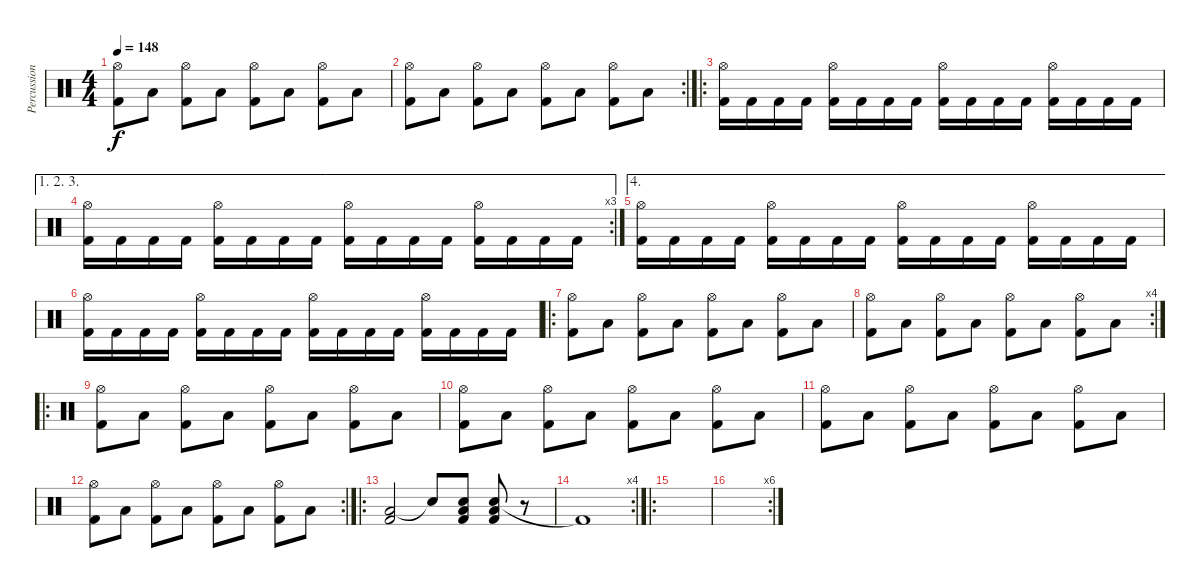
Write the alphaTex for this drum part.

\track ("Percussion" "Percussion") {instrument percussion}
\staff {score}
\articulation defaults
\ts (4 4)
\tempo 148
\clef neutral
\ks c
("Hi-Hat (open)" "Kick (hit) 2").8{dy f} "Low Tom (hit)".8 ("Hi-Hat (open)" "Kick (hit) 2").8 "Low Tom (hit)".8 ("Hi-Hat (open)" "Kick (hit) 2").8 "Low Tom (hit)".8 ("Hi-Hat (open)" "Kick (hit) 2").8 "Low Tom (hit)".8 |
\rc 2
("Hi-Hat (open)" "Kick (hit) 2").8 "Low Tom (hit)".8 ("Hi-Hat (open)" "Kick (hit) 2").8 "Low Tom (hit)".8 ("Hi-Hat (open)" "Kick (hit) 2").8 "Low Tom (hit)".8 ("Hi-Hat (open)" "Kick (hit) 2").8 "Low Tom (hit)".8 |
\ro
("Hi-Hat (open)" "Kick (hit) 2").16 "Kick (hit) 2".16 "Kick (hit) 2".16 "Kick (hit) 2".16 ("Hi-Hat (open)" "Kick (hit) 2").16 "Kick (hit) 2".16 "Kick (hit) 2".16 "Kick (hit) 2".16 ("Hi-Hat (open)" "Kick (hit) 2").16 "Kick (hit) 2".16 "Kick (hit) 2".16 "Kick (hit) 2".16 ("Hi-Hat (open)" "Kick (hit) 2").16 "Kick (hit) 2".16 "Kick (hit) 2".16 "Kick (hit) 2".16 |
\ae (1 2 3)
\rc 3
("Hi-Hat (open)" "Kick (hit) 2").16 "Kick (hit) 2".16 "Kick (hit) 2".16 "Kick (hit) 2".16 ("Hi-Hat (open)" "Kick (hit) 2").16 "Kick (hit) 2".16 "Kick (hit) 2".16 "Kick (hit) 2".16 ("Hi-Hat (open)" "Kick (hit) 2").16 "Kick (hit) 2".16 "Kick (hit) 2".16 "Kick (hit) 2".16 ("Hi-Hat (open)" "Kick (hit) 2").16 "Kick (hit) 2".16 "Kick (hit) 2".16 "Kick (hit) 2".16 |
\ae 4
("Hi-Hat (open)" "Kick (hit) 2").16 "Kick (hit) 2".16 "Kick (hit) 2".16 "Kick (hit) 2".16 ("Hi-Hat (open)" "Kick (hit) 2").16 "Kick (hit) 2".16 "Kick (hit) 2".16 "Kick (hit) 2".16 ("Hi-Hat (open)" "Kick (hit) 2").16 "Kick (hit) 2".16 "Kick (hit) 2".16 "Kick (hit) 2".16 ("Hi-Hat (open)" "Kick (hit) 2").16 "Kick (hit) 2".16 "Kick (hit) 2".16 "Kick (hit) 2".16 |
("Hi-Hat (open)" "Kick (hit) 2").16 "Kick (hit) 2".16 "Kick (hit) 2".16 "Kick (hit) 2".16 ("Hi-Hat (open)" "Kick (hit) 2").16 "Kick (hit) 2".16 "Kick (hit) 2".16 "Kick (hit) 2".16 ("Hi-Hat (open)" "Kick (hit) 2").16 "Kick (hit) 2".16 "Kick (hit) 2".16 "Kick (hit) 2".16 ("Hi-Hat (open)" "Kick (hit) 2").16 "Kick (hit) 2".16 "Kick (hit) 2".16 "Kick (hit) 2".16 |
\ro
("Hi-Hat (open)" "Kick (hit) 2").8 "Low Tom (hit)".8 ("Hi-Hat (open)" "Kick (hit) 2").8 "Low Tom (hit)".8 ("Hi-Hat (open)" "Kick (hit) 2").8 "Low Tom (hit)".8 ("Hi-Hat (open)" "Kick (hit) 2").8 "Low Tom (hit)".8 |
\rc 4
("Hi-Hat (open)" "Kick (hit) 2").8 "Low Tom (hit)".8 ("Hi-Hat (open)" "Kick (hit) 2").8 "Low Tom (hit)".8 ("Hi-Hat (open)" "Kick (hit) 2").8 "Low Tom (hit)".8 ("Hi-Hat (open)" "Kick (hit) 2").8 "Low Tom (hit)".8 |
\ro
("Hi-Hat (open)" "Kick (hit) 2").8 "Low Tom (hit)".8 ("Hi-Hat (open)" "Kick (hit) 2").8 "Low Tom (hit)".8 ("Hi-Hat (open)" "Kick (hit) 2").8 "Low Tom (hit)".8 ("Hi-Hat (open)" "Kick (hit) 2").8 "Low Tom (hit)".8 |
("Hi-Hat (open)" "Kick (hit) 2").8 "Low Tom (hit)".8 ("Hi-Hat (open)" "Kick (hit) 2").8 "Low Tom (hit)".8 ("Hi-Hat (open)" "Kick (hit) 2").8 "Low Tom (hit)".8 ("Hi-Hat (open)" "Kick (hit) 2").8 "Low Tom (hit)".8 |
("Hi-Hat (open)" "Kick (hit) 2").8 "Low Tom (hit)".8 ("Hi-Hat (open)" "Kick (hit) 2").8 "Low Tom (hit)".8 ("Hi-Hat (open)" "Kick (hit) 2").8 "Low Tom (hit)".8 ("Hi-Hat (open)" "Kick (hit) 2").8 "Low Tom (hit)".8 |
\rc 2
("Hi-Hat (open)" "Kick (hit) 2").8 "Low Tom (hit)".8 ("Hi-Hat (open)" "Kick (hit) 2").8 "Low Tom (hit)".8 ("Hi-Hat (open)" "Kick (hit) 2").8 "Low Tom (hit)".8 ("Hi-Hat (open)" "Kick (hit) 2").8 "Low Tom (hit)".8 |
\ro
("Low Tom (hit)" "Kick (hit) 2").2 "Snare (hit)"{t}.8 ("Electric Snare (hit)" "Low Tom (hit)" "Kick (hit) 2").8 ("Electric Snare (hit)" "Low Tom (hit)" "Kick (hit) 2").8 r.8 |
\rc 4 "Kick (hit) 2"{t}.1
|
\ro
|
\rc 6
